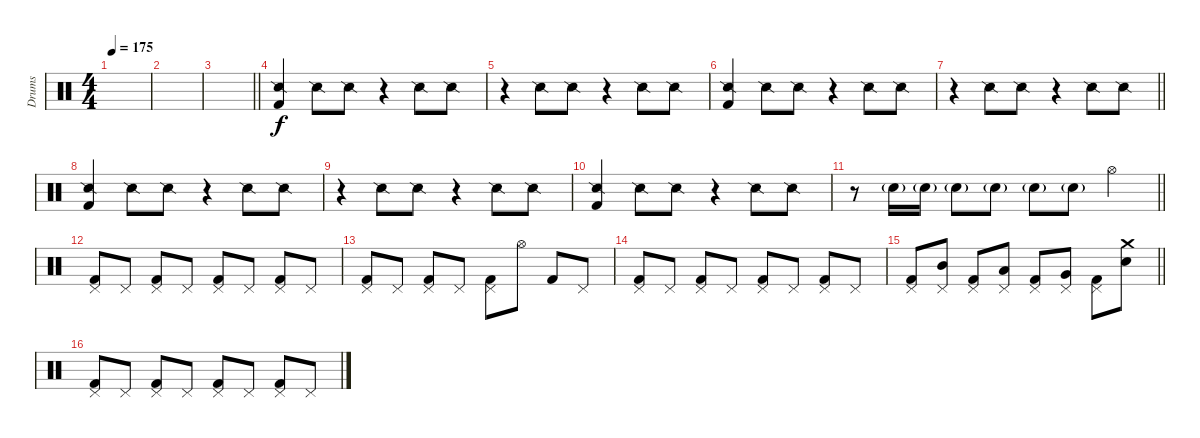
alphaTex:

\track ("Drums" "Drums") {instrument percussion}
\staff {score}
\articulation defaults
\ts (4 4)
\tempo 175
\clef neutral
\ks c
|
|
\barLineRight lightlight
|
("Snare (side stick) 2" "Kick (hit) 2").4 "Snare (side stick) 2".8 "Snare (side stick) 2".8 r.4 "Snare (side stick) 2".8 "Snare (side stick) 2".8 |
r.4 "Snare (side stick) 2".8 "Snare (side stick) 2".8 r.4 "Snare (side stick) 2".8 "Snare (side stick) 2".8 |
("Snare (side stick) 2" "Kick (hit) 2").4 "Snare (side stick) 2".8 "Snare (side stick) 2".8 r.4 "Snare (side stick) 2".8 "Snare (side stick) 2".8 |
\barLineRight lightlight
r.4 "Snare (side stick) 2".8 "Snare (side stick) 2".8 r.4 "Snare (side stick) 2".8 "Snare (side stick) 2".8 |
("Snare (side stick) 2" "Kick (hit) 2").4 "Snare (side stick) 2".8 "Snare (side stick) 2".8 r.4 "Snare (side stick) 2".8 "Snare (side stick) 2".8 |
r.4 "Snare (side stick) 2".8 "Snare (side stick) 2".8 r.4 "Snare (side stick) 2".8 "Snare (side stick) 2".8 |
("Snare (side stick) 2" "Kick (hit) 2").4 "Snare (side stick) 2".8 "Snare (side stick) 2".8 r.4 "Snare (side stick) 2".8 "Snare (side stick) 2".8 |
\barLineRight lightlight
r.8 "Electric Snare (hit)"{g}.16 "Electric Snare (hit)"{g}.16 "Electric Snare (hit)"{g}.8 "Electric Snare (hit)"{g}.8 "Electric Snare (hit)"{g}.8 "Electric Snare (hit)"{g}.8 "Hi-Hat (open)".4 |
("Pedal Hi-Hat (hit)" "Kick (hit) 2").8 "Pedal Hi-Hat (hit)".8 ("Pedal Hi-Hat (hit)" "Kick (hit) 2").8 "Pedal Hi-Hat (hit)".8 ("Pedal Hi-Hat (hit)" "Kick (hit) 2").8 "Pedal Hi-Hat (hit)".8 ("Pedal Hi-Hat (hit)" "Kick (hit) 2").8 "Pedal Hi-Hat (hit)".8 |
("Pedal Hi-Hat (hit)" "Kick (hit) 2").8 "Pedal Hi-Hat (hit)".8 ("Pedal Hi-Hat (hit)" "Kick (hit) 2").8 "Pedal Hi-Hat (hit)".8 ("Pedal Hi-Hat (hit)" "Kick (hit) 2").8 "Hi-Hat (open)".8 "Kick (hit) 2".8 "Pedal Hi-Hat (hit)".8 |
("Pedal Hi-Hat (hit)" "Kick (hit) 2").8 "Pedal Hi-Hat (hit)".8 ("Pedal Hi-Hat (hit)" "Kick (hit) 2").8 "Pedal Hi-Hat (hit)".8 ("Pedal Hi-Hat (hit)" "Kick (hit) 2").8 "Pedal Hi-Hat (hit)".8 ("Pedal Hi-Hat (hit)" "Kick (hit) 2").8 "Pedal Hi-Hat (hit)".8 |
\barLineRight lightlight
("Pedal Hi-Hat (hit)" "Kick (hit) 2").8 ("Pedal Hi-Hat (hit)" "Mid Tom (hit)").8 ("Pedal Hi-Hat (hit)" "Kick (hit) 2").8 ("Pedal Hi-Hat (hit)" "Low Tom (hit)").8 ("Pedal Hi-Hat (hit)" "Kick (hit) 2").8 ("Pedal Hi-Hat (hit)" "Very Low Tom (hit)").8 ("Pedal Hi-Hat (hit)" "Kick (hit) 2").8 ("Crash medium (hit)" "Electric Snare (hit)").8 |
("Pedal Hi-Hat (hit)" "Kick (hit) 2").8 "Pedal Hi-Hat (hit)".8 ("Pedal Hi-Hat (hit)" "Kick (hit) 2").8 "Pedal Hi-Hat (hit)".8 ("Pedal Hi-Hat (hit)" "Kick (hit) 2").8 "Pedal Hi-Hat (hit)".8 ("Pedal Hi-Hat (hit)" "Kick (hit) 2").8 "Pedal Hi-Hat (hit)".8
